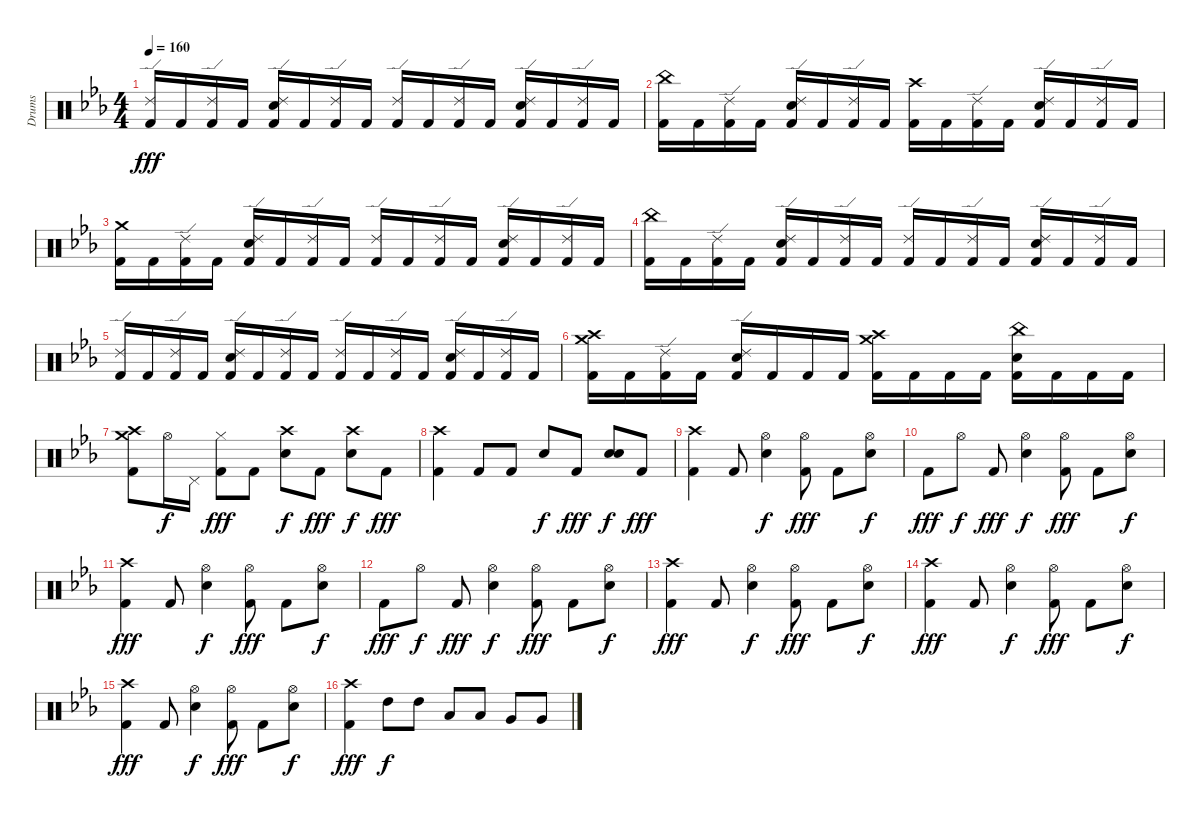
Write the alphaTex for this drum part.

\track ("Drums" "Drums") {instrument percussion}
\staff {score}
\articulation defaults
\ts (4 4)
\tempo 160
\clef neutral
\ks eb
("Ride (edge) 2" "Kick (hit) 2").16{dy fff} "Kick (hit) 2".16 ("Ride (edge) 2" "Kick (hit) 2").16 "Kick (hit) 2".16 ("Ride (edge) 2" "Electric Snare (hit)" "Kick (hit) 2").16 "Kick (hit) 2".16 ("Ride (edge) 2" "Kick (hit) 2").16 "Kick (hit) 2".16 ("Ride (edge) 2" "Kick (hit) 2").16 "Kick (hit) 2".16 ("Ride (edge) 2" "Kick (hit) 2").16 "Kick (hit) 2".16 ("Ride (edge) 2" "Electric Snare (hit)" "Kick (hit) 2").16 "Kick (hit) 2".16 ("Ride (edge) 2" "Kick (hit) 2").16 "Kick (hit) 2".16 |
("China (hit)" "Kick (hit) 2").16 "Kick (hit) 2".16 ("Ride (edge) 2" "Kick (hit) 2").16 "Kick (hit) 2".16 ("Ride (edge) 2" "Electric Snare (hit)" "Kick (hit) 2").16 "Kick (hit) 2".16 ("Ride (edge) 2" "Kick (hit) 2").16 "Kick (hit) 2".16 ("Crash high (hit)" "Kick (hit) 2").16 "Kick (hit) 2".16 ("Ride (edge) 2" "Kick (hit) 2").16 "Kick (hit) 2".16 ("Ride (edge) 2" "Electric Snare (hit)" "Kick (hit) 2").16 "Kick (hit) 2".16 ("Ride (edge) 2" "Kick (hit) 2").16 "Kick (hit) 2".16 |
("Crash medium (hit)" "Kick (hit) 2").16 "Kick (hit) 2".16 ("Ride (edge) 2" "Kick (hit) 2").16 "Kick (hit) 2".16 ("Ride (edge) 2" "Electric Snare (hit)" "Kick (hit) 2").16 "Kick (hit) 2".16 ("Ride (edge) 2" "Kick (hit) 2").16 "Kick (hit) 2".16 ("Ride (edge) 2" "Kick (hit) 2").16 "Kick (hit) 2".16 ("Ride (edge) 2" "Kick (hit) 2").16 "Kick (hit) 2".16 ("Ride (edge) 2" "Electric Snare (hit)" "Kick (hit) 2").16 "Kick (hit) 2".16 ("Ride (edge) 2" "Kick (hit) 2").16 "Kick (hit) 2".16 |
("China (hit)" "Kick (hit) 2").16 "Kick (hit) 2".16 ("Ride (edge) 2" "Kick (hit) 2").16 "Kick (hit) 2".16 ("Ride (edge) 2" "Electric Snare (hit)" "Kick (hit) 2").16 "Kick (hit) 2".16 ("Ride (edge) 2" "Kick (hit) 2").16 "Kick (hit) 2".16 ("Ride (edge) 2" "Kick (hit) 2").16 "Kick (hit) 2".16 ("Ride (edge) 2" "Kick (hit) 2").16 "Kick (hit) 2".16 ("Ride (edge) 2" "Electric Snare (hit)" "Kick (hit) 2").16 "Kick (hit) 2".16 ("Ride (edge) 2" "Kick (hit) 2").16 "Kick (hit) 2".16 |
("Ride (edge) 2" "Kick (hit) 2").16 "Kick (hit) 2".16 ("Ride (edge) 2" "Kick (hit) 2").16 "Kick (hit) 2".16 ("Ride (edge) 2" "Electric Snare (hit)" "Kick (hit) 2").16 "Kick (hit) 2".16 ("Ride (edge) 2" "Kick (hit) 2").16 "Kick (hit) 2".16 ("Ride (edge) 2" "Kick (hit) 2").16 "Kick (hit) 2".16 ("Ride (edge) 2" "Kick (hit) 2").16 "Kick (hit) 2".16 ("Ride (edge) 2" "Electric Snare (hit)" "Kick (hit) 2").16 "Kick (hit) 2".16 ("Ride (edge) 2" "Kick (hit) 2").16 "Kick (hit) 2".16 |
("Crash high (hit)" "Crash medium (hit)" "Kick (hit) 2").16 "Kick (hit) 2".16 ("Ride (edge) 2" "Kick (hit) 2").16 "Kick (hit) 2".16 ("Ride (edge) 2" "Electric Snare (hit)" "Kick (hit) 2").16 "Kick (hit) 2".16 "Kick (hit) 2".16 "Kick (hit) 2".16 ("Crash high (hit)" "Crash medium (hit)" "Kick (hit) 2").16 "Kick (hit) 2".16 "Kick (hit) 2".16 "Kick (hit) 2".16 ("China (hit)" "Electric Snare (hit)" "Kick (hit) 2").16 "Kick (hit) 2".16 "Kick (hit) 2".16 "Kick (hit) 2".16 |
("Crash high (hit)" "Crash medium (hit)" "Kick (hit) 2").8 "Hi-Hat (open)".16{dy f} "Pedal Hi-Hat (hit)".16 ("Hi-Hat (closed)" "Kick (hit) 2").8{dy fff} "Kick (hit) 2".8 ("Crash high (hit)" "Electric Snare (hit)").8{dy f} "Kick (hit) 2".8{dy fff} ("Crash high (hit)" "Electric Snare (hit)").8{dy f} "Kick (hit) 2".8{dy fff} |
("Crash high (hit)" "Kick (hit) 2").4 "Kick (hit) 2".8 "Kick (hit) 2".8 "Electric Snare (hit)".8{dy f} "Kick (hit) 2".8{dy fff} ("Electric Snare (hit)" "Electric Snare (hit)").8{dy f} "Kick (hit) 2".8{dy fff} |
("Crash high (hit)" "Kick (hit) 2").4 "Kick (hit) 2".8 ("Hi-Hat (open)" "Electric Snare (hit)").4{dy f} ("Hi-Hat (open)" "Kick (hit) 2").8{dy fff} "Kick (hit) 2".8 ("Hi-Hat (open)" "Electric Snare (hit)").8{dy f} |
"Kick (hit) 2".8{dy fff} "Hi-Hat (open)".8{dy f} "Kick (hit) 2".8{dy fff} ("Hi-Hat (open)" "Electric Snare (hit)").4{dy f} ("Hi-Hat (open)" "Kick (hit) 2").8{dy fff} "Kick (hit) 2".8 ("Hi-Hat (open)" "Electric Snare (hit)").8{dy f} |
("Crash high (hit)" "Kick (hit) 2").4{dy fff} "Kick (hit) 2".8 ("Hi-Hat (open)" "Electric Snare (hit)").4{dy f} ("Hi-Hat (open)" "Kick (hit) 2").8{dy fff} "Kick (hit) 2".8 ("Hi-Hat (open)" "Electric Snare (hit)").8{dy f} |
"Kick (hit) 2".8{dy fff} "Hi-Hat (open)".8{dy f} "Kick (hit) 2".8{dy fff} ("Hi-Hat (open)" "Electric Snare (hit)").4{dy f} ("Hi-Hat (open)" "Kick (hit) 2").8{dy fff} "Kick (hit) 2".8 ("Hi-Hat (open)" "Electric Snare (hit)").8{dy f} |
("Crash high (hit)" "Kick (hit) 2").4{dy fff} "Kick (hit) 2".8 ("Hi-Hat (open)" "Electric Snare (hit)").4{dy f} ("Hi-Hat (open)" "Kick (hit) 2").8{dy fff} "Kick (hit) 2".8 ("Hi-Hat (open)" "Electric Snare (hit)").8{dy f} |
("Crash high (hit)" "Kick (hit) 2").4{dy fff} "Kick (hit) 2".8 ("Hi-Hat (open)" "Electric Snare (hit)").4{dy f} ("Hi-Hat (open)" "Kick (hit) 2").8{dy fff} "Kick (hit) 2".8 ("Hi-Hat (open)" "Electric Snare (hit)").8{dy f} |
("Crash high (hit)" "Kick (hit) 2").4{dy fff} "Kick (hit) 2".8 ("Hi-Hat (open)" "Electric Snare (hit)").4{dy f} ("Hi-Hat (open)" "Kick (hit) 2").8{dy fff} "Kick (hit) 2".8 ("Hi-Hat (open)" "Electric Snare (hit)").8{dy f} |
("Crash high (hit)" "Kick (hit) 2").4{dy fff} "High Tom (hit)".8{dy f} "High Tom (hit)".8 "Low Tom (hit)".8 "Low Tom (hit)".8 "Very Low Tom (hit)".8 "Very Low Tom (hit)".8
